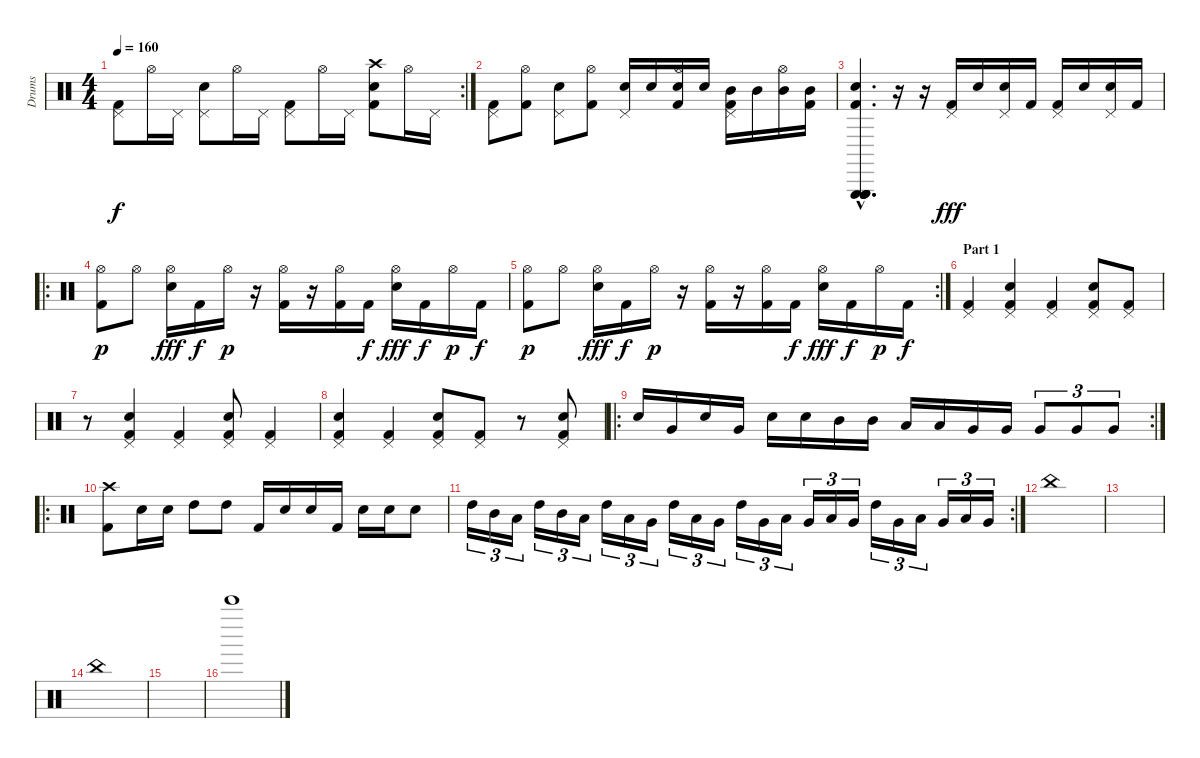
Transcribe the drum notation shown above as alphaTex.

\track ("Drums" "Drums") {instrument percussion}
\staff {score}
\articulation defaults
\rc 2
\ts (4 4)
\tempo 160
\clef neutral
\ks c
("Pedal Hi-Hat (hit)" "Kick (hit) 2").8{dy f} "Hi-Hat (open)".16 "Pedal Hi-Hat (hit)".16 ("Pedal Hi-Hat (hit)" "Electric Snare (hit)").8 "Hi-Hat (open)".16 "Pedal Hi-Hat (hit)".16 ("Pedal Hi-Hat (hit)" "Kick (hit) 2").8 "Hi-Hat (open)".16 "Pedal Hi-Hat (hit)".16 ("Crash high (hit)" "Electric Snare (hit)" "Kick (hit) 2").8 "Hi-Hat (open)".16 "Pedal Hi-Hat (hit)".16 |
("Pedal Hi-Hat (hit)" "Kick (hit) 2").8 ("Hi-Hat (open)" "Kick (hit) 2").8 ("Pedal Hi-Hat (hit)" "Electric Snare (hit)").8 ("Hi-Hat (open)" "Kick (hit) 2").8 ("Pedal Hi-Hat (hit)" "Electric Snare (hit)").16 "Electric Snare (hit)".16 ("Hi-Hat (open)" "Electric Snare (hit)" "Kick (hit) 2").16 "Electric Snare (hit)".16 ("Pedal Hi-Hat (hit)" "Mid Tom (hit)" "Kick (hit) 2").16 "Mid Tom (hit)".16 ("Hi-Hat (open)" "Mid Tom (hit)").16 ("Mid Tom (hit)" "Kick (hit) 2").16 |
("Triangle (hit)"{hac} "Triangle (hit)"{hac} "Electric Snare (hit)"{hac} "Triangle (hit)"{hac} "Triangle (hit)"{hac} "Kick (hit) 2"{hac}).4{d} r.16 r.16 ("Pedal Hi-Hat (hit)" "Kick (hit) 2").16{dy fff} "Electric Snare (hit)".16 ("Pedal Hi-Hat (hit)" "Electric Snare (hit)").16 "Kick (hit) 2".16 ("Pedal Hi-Hat (hit)" "Kick (hit) 2").16 "Electric Snare (hit)".16 ("Pedal Hi-Hat (hit)" "Electric Snare (hit)").16 "Kick (hit) 2".16 |
\ro
("Hi-Hat (open)" "Kick (hit) 2").8{dy p} "Hi-Hat (open)".8 ("Hi-Hat (open)" "Electric Snare (hit)").16{dy fff} "Kick (hit) 2".16{dy f} "Hi-Hat (open)".16{dy p} r.16 ("Hi-Hat (open)" "Kick (hit) 2").16 r.16 ("Hi-Hat (open)" "Kick (hit) 2").16 "Kick (hit) 2".16{dy f} ("Hi-Hat (open)" "Electric Snare (hit)").16{dy fff} "Kick (hit) 2".16{dy f} "Hi-Hat (open)".16{dy p} "Kick (hit) 2".16{dy f} |
\rc 2
("Hi-Hat (open)" "Kick (hit) 2").8{dy p} "Hi-Hat (open)".8 ("Hi-Hat (open)" "Electric Snare (hit)").16{dy fff} "Kick (hit) 2".16{dy f} "Hi-Hat (open)".16{dy p} r.16 ("Hi-Hat (open)" "Kick (hit) 2").16 r.16 ("Hi-Hat (open)" "Kick (hit) 2").16 "Kick (hit) 2".16{dy f} ("Hi-Hat (open)" "Electric Snare (hit)").16{dy fff} "Kick (hit) 2".16{dy f} "Hi-Hat (open)".16{dy p} "Kick (hit) 2".16{dy f} |
\section ("" "Part 1")
("Pedal Hi-Hat (hit)" "Kick (hit) 2").4 ("Pedal Hi-Hat (hit)" "Electric Snare (hit)" "Kick (hit) 2").4 ("Pedal Hi-Hat (hit)" "Kick (hit) 2").4 ("Pedal Hi-Hat (hit)" "Electric Snare (hit)" "Kick (hit) 2").8 ("Pedal Hi-Hat (hit)" "Kick (hit) 2").8 |
r.8 ("Pedal Hi-Hat (hit)" "Electric Snare (hit)" "Kick (hit) 2").4 ("Pedal Hi-Hat (hit)" "Kick (hit) 2").4 ("Pedal Hi-Hat (hit)" "Electric Snare (hit)" "Kick (hit) 2").8 ("Pedal Hi-Hat (hit)" "Kick (hit) 2").4 |
("Pedal Hi-Hat (hit)" "Electric Snare (hit)" "Kick (hit) 2").4 ("Pedal Hi-Hat (hit)" "Kick (hit) 2").4 ("Pedal Hi-Hat (hit)" "Electric Snare (hit)" "Kick (hit) 2").8 ("Pedal Hi-Hat (hit)" "Kick (hit) 2").8 r.8 ("Pedal Hi-Hat (hit)" "Electric Snare (hit)" "Kick (hit) 2").8 |
\ro
\rc 2 "Electric Snare (hit)".16 "Very Low Tom (hit)".16 "Electric Snare (hit)".16 "Very Low Tom (hit)".16 "Electric Snare (hit)".16 "Electric Snare (hit)".16 "Mid Tom (hit)".16 "Mid Tom (hit)".16 "Low Tom (hit)".16 "Low Tom (hit)".16 "Very Low Tom (hit)".16 "Very Low Tom (hit)".16 "Very Low Tom (hit)".8{tu (3 2)} "Very Low Tom (hit)".8{tu (3 2)} "Very Low Tom (hit)".8{tu (3 2)}
|
\ro
("Crash high (hit)" "Kick (hit) 2").8 "Electric Snare (hit)".16 "Electric Snare (hit)".16 "High Tom (hit)".8 "High Tom (hit)".8 "Kick (hit) 2".16 "Electric Snare (hit)".16 "Electric Snare (hit)".16 "Kick (hit) 2".16 "Electric Snare (hit)".16 "Electric Snare (hit)".16 "Electric Snare (hit)".8 |
\rc 2 "High Tom (hit)".16{tu (3 2)} "Mid Tom (hit)".16{tu (3 2)} "Low Tom (hit)".16{tu (3 2)} "High Tom (hit)".16{tu (3 2)} "Mid Tom (hit)".16{tu (3 2)} "Low Tom (hit)".16{tu (3 2)} "High Tom (hit)".16{tu (3 2)} "Low Tom (hit)".16{tu (3 2)} "Very Low Tom (hit)".16{tu (3 2)} "High Tom (hit)".16{tu (3 2)} "Low Tom (hit)".16{tu (3 2)} "Very Low Tom (hit)".16{tu (3 2)} "High Tom (hit)".16{tu (3 2)} "Very Low Tom (hit)".16{tu (3 2)} "Low Tom (hit)".16{tu (3 2)} "Very Low Tom (hit)".16{tu (3 2)} "Low Tom (hit)".16{tu (3 2)} "Very Low Tom (hit)".16{tu (3 2)} "High Tom (hit)".16{tu (3 2)} "Very Low Tom (hit)".16{tu (3 2)} "Low Tom (hit)".16{tu (3 2)} "Very Low Tom (hit)".16{tu (3 2)} "Low Tom (hit)".16{tu (3 2)} "Very Low Tom (hit)".16{tu (3 2)}
|
"China (hit)".1 |
|
"China (hit)".1 |
|
"Bell Tree (hit)".1
